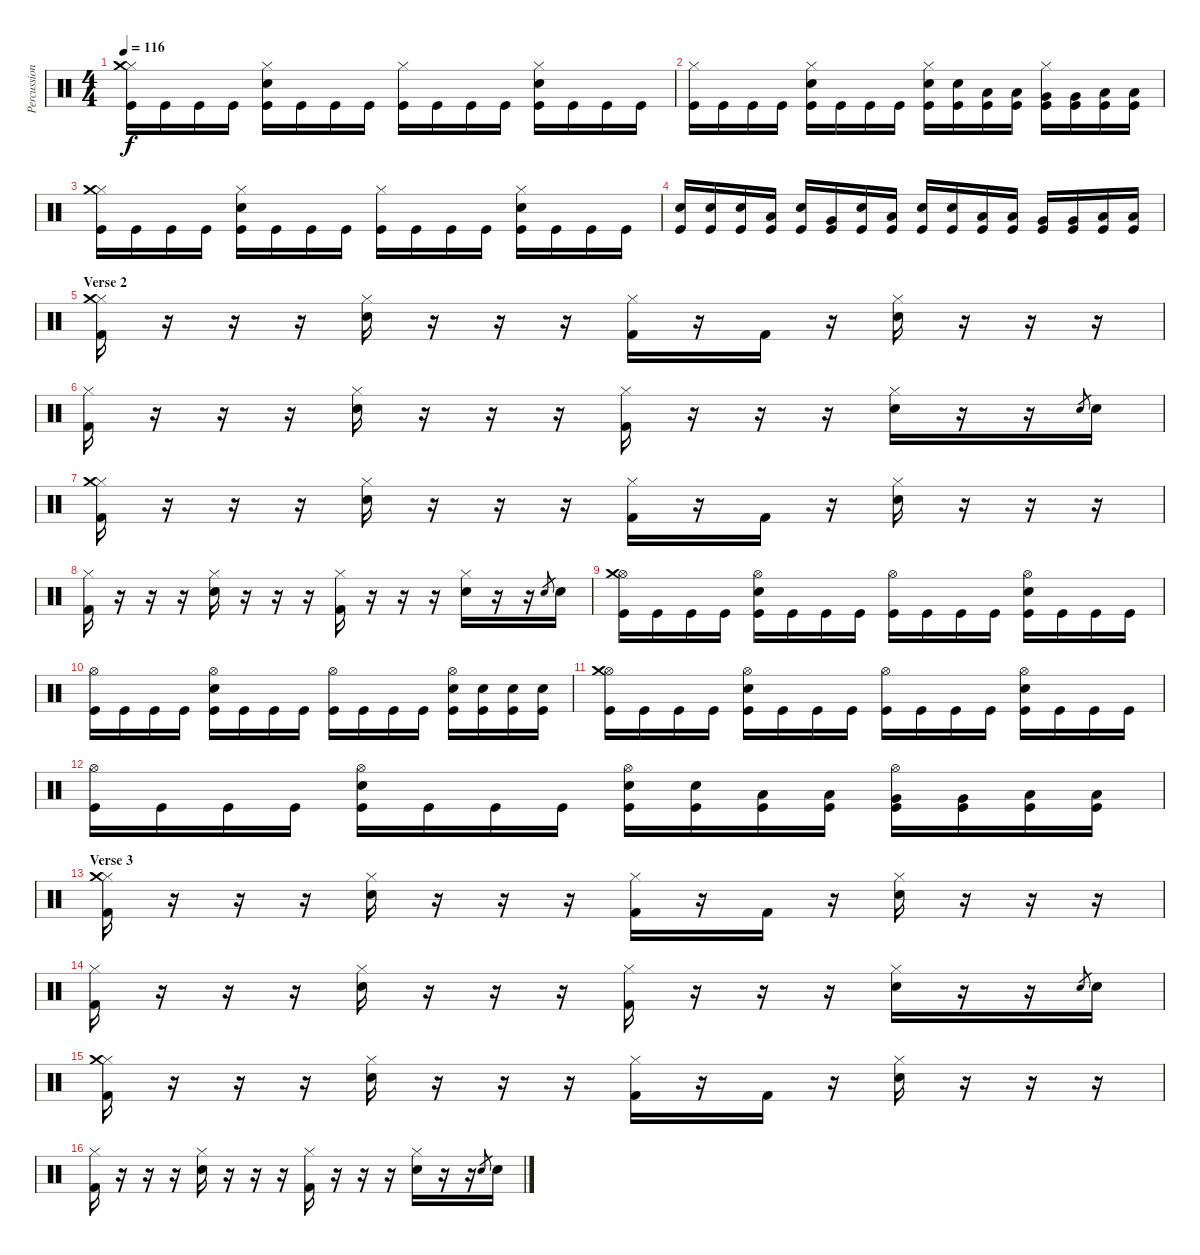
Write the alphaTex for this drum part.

\track ("Percussion" "Percussion") {instrument percussion}
\staff {score}
\articulation defaults
\ts (4 4)
\tempo 116
\clef neutral
\ks c
("Hi-Hat (closed)" "Crash medium (hit)" "Kick (hit)").16{dy f} "Kick (hit)".16 "Kick (hit)".16 "Kick (hit)".16 ("Hi-Hat (closed)" "Snare (hit) 2" "Kick (hit)").16 "Kick (hit)".16 "Kick (hit)".16 "Kick (hit)".16 ("Hi-Hat (closed)" "Kick (hit)").16 "Kick (hit)".16 "Kick (hit)".16 "Kick (hit)".16 ("Hi-Hat (closed)" "Snare (hit) 2" "Kick (hit)").16 "Kick (hit)".16 "Kick (hit)".16 "Kick (hit)".16 |
("Hi-Hat (closed)" "Kick (hit)").16 "Kick (hit)".16 "Kick (hit)".16 "Kick (hit)".16 ("Hi-Hat (closed)" "Snare (hit) 2" "Kick (hit)").16 "Kick (hit)".16 "Kick (hit)".16 "Kick (hit)".16 ("Hi-Hat (closed)" "Snare (hit) 2" "Kick (hit)").16 ("Snare (hit) 2" "Kick (hit)").16 ("Low Tom (hit)" "Kick (hit)").16 ("Low Tom (hit)" "Kick (hit)").16 ("Hi-Hat (closed)" "Very Low Tom (hit)" "Kick (hit)").16 ("Very Low Tom (hit)" "Kick (hit)").16 ("Low Floor Tom (hit)" "Kick (hit)").16 ("Low Floor Tom (hit)" "Kick (hit)").16 |
("Hi-Hat (closed)" "Crash medium (hit)" "Kick (hit)").16 "Kick (hit)".16 "Kick (hit)".16 "Kick (hit)".16 ("Hi-Hat (closed)" "Snare (hit) 2" "Kick (hit)").16 "Kick (hit)".16 "Kick (hit)".16 "Kick (hit)".16 ("Hi-Hat (closed)" "Kick (hit)").16 "Kick (hit)".16 "Kick (hit)".16 "Kick (hit)".16 ("Hi-Hat (closed)" "Snare (hit) 2" "Kick (hit)").16 "Kick (hit)".16 "Kick (hit)".16 "Kick (hit)".16 |
("Snare (hit) 2" "Kick (hit)").16 ("Snare (hit) 2" "Kick (hit)").16 ("Snare (hit) 2" "Kick (hit)").16 ("Low Tom (hit)" "Kick (hit)").16 ("Snare (hit) 2" "Kick (hit)").16 ("Very Low Tom (hit)" "Kick (hit)").16 ("Snare (hit) 2" "Kick (hit)").16 ("Low Floor Tom (hit)" "Kick (hit)").16 ("Snare (hit) 2" "Kick (hit)").16 ("Snare (hit) 2" "Kick (hit)").16 ("Low Tom (hit)" "Kick (hit)").16 ("Low Tom (hit)" "Kick (hit)").16 ("Very Low Tom (hit)" "Kick (hit)").16 ("Very Low Tom (hit)" "Kick (hit)").16 ("Low Floor Tom (hit)" "Kick (hit)").16 ("Low Floor Tom (hit)" "Kick (hit)").16 |
\section ("" "Verse 2")
("Hi-Hat (closed)" "Crash medium (hit)" "Kick (hit) 2").16 r.16 r.16 r.16 ("Hi-Hat (closed)" "Snare (hit) 2").16 r.16 r.16 r.16 ("Hi-Hat (closed)" "Kick (hit) 2").16 r.16 "Kick (hit) 2".16 r.16 ("Hi-Hat (closed)" "Snare (hit) 2").16 r.16 r.16 r.16 |
("Hi-Hat (closed)" "Kick (hit) 2").16 r.16 r.16 r.16 ("Hi-Hat (closed)" "Snare (hit) 2").16 r.16 r.16 r.16 ("Hi-Hat (closed)" "Kick (hit) 2").16 r.16 r.16 r.16 ("Hi-Hat (closed)" "Snare (hit) 2").16 r.16 r.16 "Snare (hit) 2".8{gr} "Snare (hit) 2".16 |
("Hi-Hat (closed)" "Crash medium (hit)" "Kick (hit) 2").16 r.16 r.16 r.16 ("Hi-Hat (closed)" "Snare (hit) 2").16 r.16 r.16 r.16 ("Hi-Hat (closed)" "Kick (hit) 2").16 r.16 "Kick (hit) 2".16 r.16 ("Hi-Hat (closed)" "Snare (hit) 2").16 r.16 r.16 r.16 |
("Hi-Hat (closed)" "Kick (hit) 2").16 r.16 r.16 r.16 ("Hi-Hat (closed)" "Snare (hit) 2").16 r.16 r.16 r.16 ("Hi-Hat (closed)" "Kick (hit) 2").16 r.16 r.16 r.16 ("Hi-Hat (closed)" "Snare (hit) 2").16 r.16 r.16 "Snare (hit) 2".8{gr} "Snare (hit) 2".16 |
("Hi-Hat (open)" "Crash medium (hit)" "Kick (hit)").16 "Kick (hit)".16 "Kick (hit)".16 "Kick (hit)".16 ("Hi-Hat (open)" "Snare (hit) 2" "Kick (hit)").16 "Kick (hit)".16 "Kick (hit)".16 "Kick (hit)".16 ("Hi-Hat (open)" "Kick (hit)").16 "Kick (hit)".16 "Kick (hit)".16 "Kick (hit)".16 ("Hi-Hat (open)" "Snare (hit) 2" "Kick (hit)").16 "Kick (hit)".16 "Kick (hit)".16 "Kick (hit)".16 |
("Hi-Hat (open)" "Kick (hit)").16 "Kick (hit)".16 "Kick (hit)".16 "Kick (hit)".16 ("Hi-Hat (open)" "Snare (hit) 2" "Kick (hit)").16 "Kick (hit)".16 "Kick (hit)".16 "Kick (hit)".16 ("Hi-Hat (open)" "Kick (hit)").16 "Kick (hit)".16 "Kick (hit)".16 "Kick (hit)".16 ("Hi-Hat (open)" "Snare (hit) 2" "Kick (hit)").16 ("Snare (hit) 2" "Kick (hit)").16 ("Snare (hit) 2" "Kick (hit)").16 ("Snare (hit) 2" "Kick (hit)").16 |
("Hi-Hat (open)" "Crash medium (hit)" "Kick (hit)").16 "Kick (hit)".16 "Kick (hit)".16 "Kick (hit)".16 ("Hi-Hat (open)" "Snare (hit) 2" "Kick (hit)").16 "Kick (hit)".16 "Kick (hit)".16 "Kick (hit)".16 ("Hi-Hat (open)" "Kick (hit)").16 "Kick (hit)".16 "Kick (hit)".16 "Kick (hit)".16 ("Hi-Hat (open)" "Snare (hit) 2" "Kick (hit)").16 "Kick (hit)".16 "Kick (hit)".16 "Kick (hit)".16 |
("Hi-Hat (open)" "Kick (hit)").16 "Kick (hit)".16 "Kick (hit)".16 "Kick (hit)".16 ("Hi-Hat (open)" "Snare (hit) 2" "Kick (hit)").16 "Kick (hit)".16 "Kick (hit)".16 "Kick (hit)".16 ("Hi-Hat (open)" "Snare (hit) 2" "Kick (hit)").16 ("Snare (hit) 2" "Kick (hit)").16 ("Low Tom (hit)" "Kick (hit)").16 ("Low Tom (hit)" "Kick (hit)").16 ("Hi-Hat (open)" "Very Low Tom (hit)" "Kick (hit)").16 ("Very Low Tom (hit)" "Kick (hit)").16 ("Low Floor Tom (hit)" "Kick (hit)").16 ("Low Floor Tom (hit)" "Kick (hit)").16 |
\section ("" "Verse 3")
("Hi-Hat (closed)" "Crash medium (hit)" "Kick (hit) 2").16 r.16 r.16 r.16 ("Hi-Hat (closed)" "Snare (hit) 2").16 r.16 r.16 r.16 ("Hi-Hat (closed)" "Kick (hit) 2").16 r.16 "Kick (hit) 2".16 r.16 ("Hi-Hat (closed)" "Snare (hit) 2").16 r.16 r.16 r.16 |
("Hi-Hat (closed)" "Kick (hit) 2").16 r.16 r.16 r.16 ("Hi-Hat (closed)" "Snare (hit) 2").16 r.16 r.16 r.16 ("Hi-Hat (closed)" "Kick (hit) 2").16 r.16 r.16 r.16 ("Hi-Hat (closed)" "Snare (hit) 2").16 r.16 r.16 "Snare (hit) 2".8{gr} "Snare (hit) 2".16 |
("Hi-Hat (closed)" "Crash medium (hit)" "Kick (hit) 2").16 r.16 r.16 r.16 ("Hi-Hat (closed)" "Snare (hit) 2").16 r.16 r.16 r.16 ("Hi-Hat (closed)" "Kick (hit) 2").16 r.16 "Kick (hit) 2".16 r.16 ("Hi-Hat (closed)" "Snare (hit) 2").16 r.16 r.16 r.16 |
("Hi-Hat (closed)" "Kick (hit) 2").16 r.16 r.16 r.16 ("Hi-Hat (closed)" "Snare (hit) 2").16 r.16 r.16 r.16 ("Hi-Hat (closed)" "Kick (hit) 2").16 r.16 r.16 r.16 ("Hi-Hat (closed)" "Snare (hit) 2").16 r.16 r.16 "Snare (hit) 2".8{gr} "Snare (hit) 2".16
